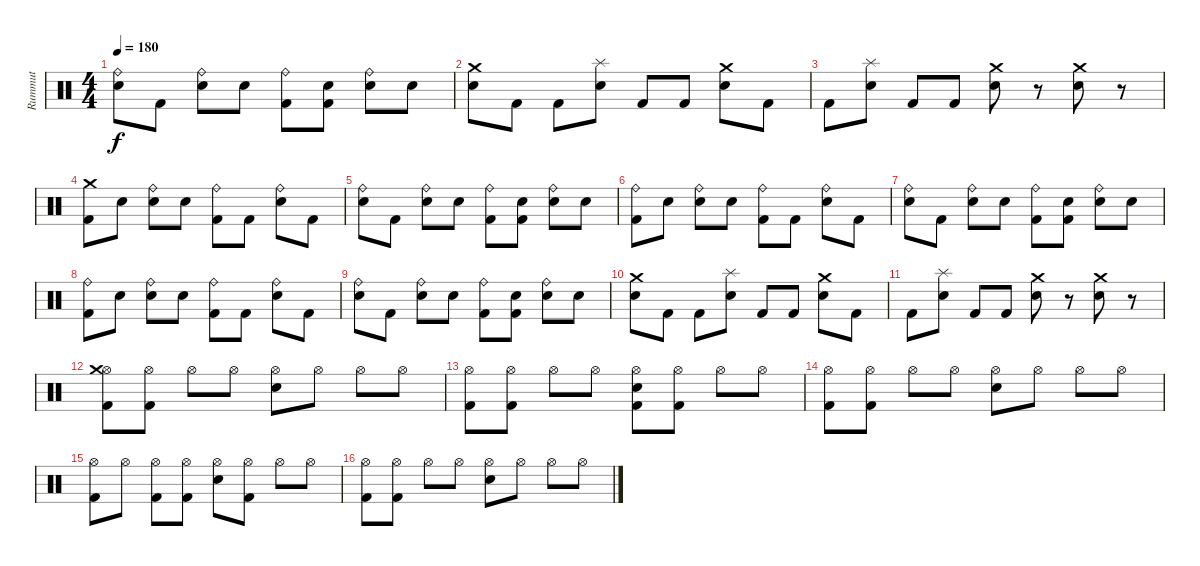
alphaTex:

\track ("Rummut" "Rummut") {instrument percussion}
\staff {score}
\articulation defaults
\ts (4 4)
\tempo 180
\clef neutral
\ks c
("Ride (bell)" "Snare (hit)"{x}).8{dy f} "Kick (hit) 2".8 ("Ride (bell)" "Snare (hit) 2").8 "Snare (hit)"{x}.8 ("Ride (bell)" "Kick (hit) 2").8 ("Snare (hit)"{x} "Kick (hit) 2").8 ("Ride (bell)" "Snare (hit) 2").8 "Snare (hit)"{x}.8 |
("Crash medium (hit)" "Snare (hit) 2").8 "Kick (hit) 2".8 "Kick (hit) 2".8 ("Splash (hit)" "Snare (hit) 2").8 "Kick (hit) 2".8 "Kick (hit) 2".8 ("Crash medium (hit)" "Snare (hit) 2").8 "Kick (hit) 2".8 |
"Kick (hit) 2".8 ("Splash (hit)" "Snare (hit) 2").8 "Kick (hit) 2".8 "Kick (hit) 2".8 ("Crash medium (hit)" "Snare (hit) 2").8 r.8 ("Crash medium (hit)" "Snare (hit) 2").8 r.8 |
("Crash medium (hit)" "Kick (hit) 2").8 "Snare (hit) 2"{x}.8 ("Ride (bell)" "Snare (hit) 2").8 "Snare (hit)"{x}.8 ("Ride (bell)" "Kick (hit) 2").8 "Kick (hit) 2".8 ("Ride (bell)" "Snare (hit) 2").8 "Kick (hit) 2".8 |
("Ride (bell)" "Snare (hit)"{x}).8 "Kick (hit) 2".8 ("Ride (bell)" "Snare (hit) 2").8 "Snare (hit)"{x}.8 ("Ride (bell)" "Kick (hit) 2").8 ("Snare (hit)"{x} "Kick (hit) 2").8 ("Ride (bell)" "Snare (hit) 2").8 "Snare (hit)"{x}.8 |
("Ride (bell)" "Kick (hit) 2").8 "Snare (hit) 2"{x}.8 ("Ride (bell)" "Snare (hit) 2").8 "Snare (hit)"{x}.8 ("Ride (bell)" "Kick (hit) 2").8 "Kick (hit) 2".8 ("Ride (bell)" "Snare (hit) 2").8 "Kick (hit) 2".8 |
("Ride (bell)" "Snare (hit)"{x}).8 "Kick (hit) 2".8 ("Ride (bell)" "Snare (hit) 2").8 "Snare (hit)"{x}.8 ("Ride (bell)" "Kick (hit) 2").8 ("Snare (hit)"{x} "Kick (hit) 2").8 ("Ride (bell)" "Snare (hit) 2").8 "Snare (hit)"{x}.8 |
("Ride (bell)" "Kick (hit) 2").8 "Snare (hit) 2"{x}.8 ("Ride (bell)" "Snare (hit) 2").8 "Snare (hit)"{x}.8 ("Ride (bell)" "Kick (hit) 2").8 "Kick (hit) 2".8 ("Ride (bell)" "Snare (hit) 2").8 "Kick (hit) 2".8 |
("Ride (bell)" "Snare (hit)"{x}).8 "Kick (hit) 2".8 ("Ride (bell)" "Snare (hit) 2").8 "Snare (hit)"{x}.8 ("Ride (bell)" "Kick (hit) 2").8 ("Snare (hit)"{x} "Kick (hit) 2").8 ("Ride (bell)" "Snare (hit) 2").8 "Snare (hit)"{x}.8 |
("Crash medium (hit)" "Snare (hit) 2").8 "Kick (hit) 2".8 "Kick (hit) 2".8 ("Splash (hit)" "Snare (hit) 2").8 "Kick (hit) 2".8 "Kick (hit) 2".8 ("Crash medium (hit)" "Snare (hit) 2").8 "Kick (hit) 2".8 |
"Kick (hit) 2".8 ("Splash (hit)" "Snare (hit) 2").8 "Kick (hit) 2".8 "Kick (hit) 2".8 ("Crash medium (hit)" "Snare (hit) 2").8 r.8 ("Crash medium (hit)" "Snare (hit) 2").8 r.8 |
("Hi-Hat (open)" "Crash medium (hit)" "Kick (hit) 2").8 ("Hi-Hat (open)"{x} "Kick (hit) 2").8 "Hi-Hat (open)".8 "Hi-Hat (open)"{x}.8 ("Hi-Hat (open)" "Snare (hit) 2").8 "Hi-Hat (open)"{x}.8 "Hi-Hat (open)".8 "Hi-Hat (open)"{x}.8 |
("Hi-Hat (open)" "Kick (hit) 2").8 ("Hi-Hat (open)"{x} "Kick (hit) 2").8 "Hi-Hat (open)".8 "Hi-Hat (open)"{x}.8 ("Hi-Hat (open)" "Snare (hit) 2" "Kick (hit) 2").8 ("Hi-Hat (open)"{x} "Kick (hit) 2").8 "Hi-Hat (open)".8 "Hi-Hat (open)"{x}.8 |
("Hi-Hat (open)" "Kick (hit) 2").8 ("Hi-Hat (open)"{x} "Kick (hit) 2").8 "Hi-Hat (open)".8 "Hi-Hat (open)"{x}.8 ("Hi-Hat (open)" "Snare (hit) 2").8 "Hi-Hat (open)"{x}.8 "Hi-Hat (open)".8 "Hi-Hat (open)"{x}.8 |
("Hi-Hat (open)" "Kick (hit) 2").8 "Hi-Hat (open)"{x}.8 ("Hi-Hat (open)" "Kick (hit) 2").8 ("Hi-Hat (open)"{x} "Kick (hit) 2").8 ("Hi-Hat (open)" "Snare (hit) 2").8 ("Hi-Hat (open)"{x} "Kick (hit) 2").8 "Hi-Hat (open)".8 "Hi-Hat (open)"{x}.8 |
("Hi-Hat (open)" "Kick (hit) 2").8 ("Hi-Hat (open)"{x} "Kick (hit) 2").8 "Hi-Hat (open)".8 "Hi-Hat (open)"{x}.8 ("Hi-Hat (open)" "Snare (hit) 2").8 "Hi-Hat (open)"{x}.8 "Hi-Hat (open)".8 "Hi-Hat (open)"{x}.8
